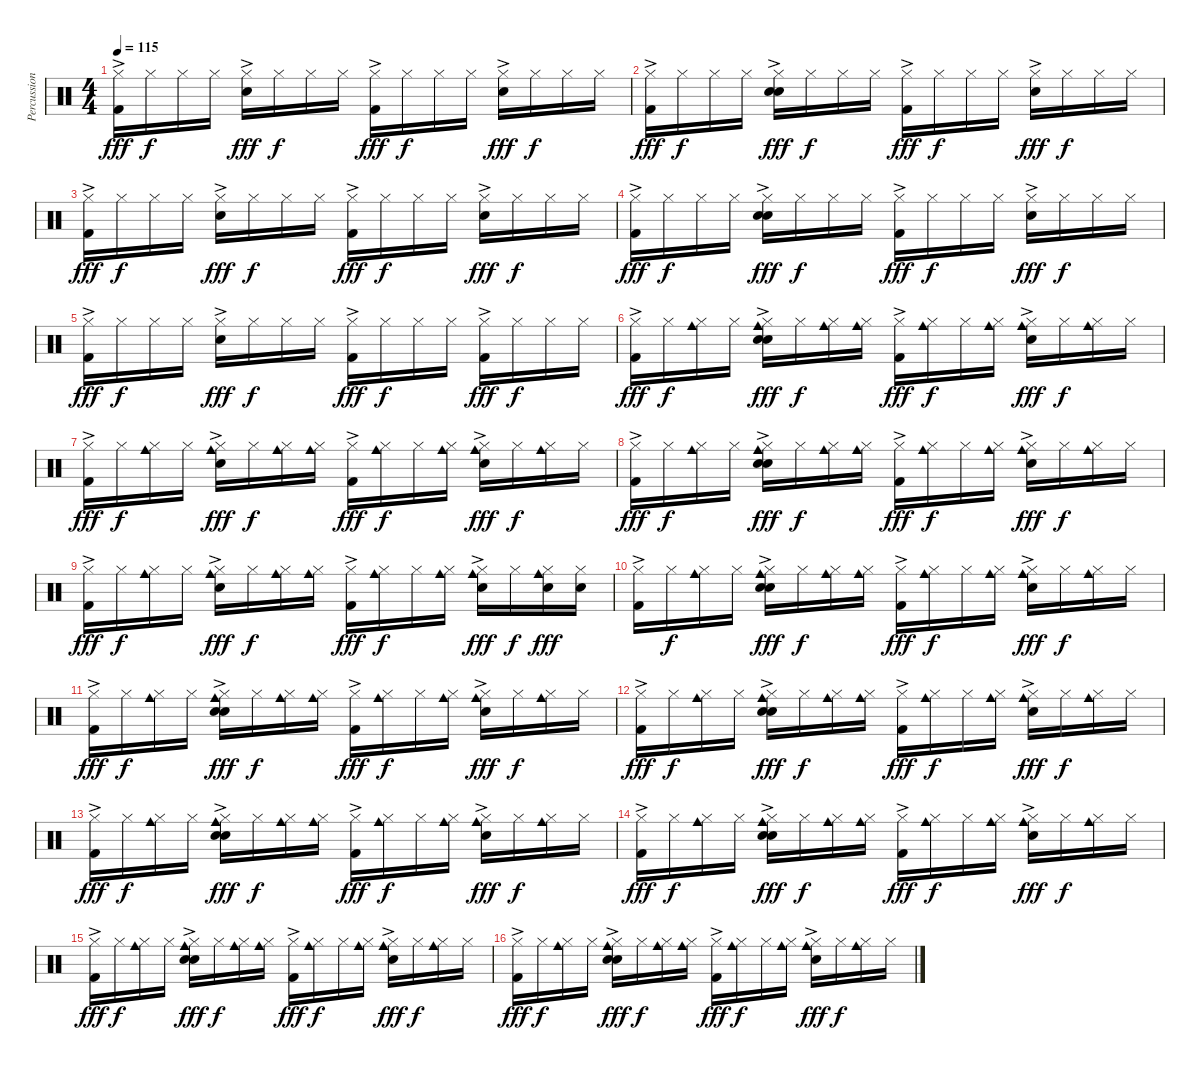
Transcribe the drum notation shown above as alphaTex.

\track ("Percussion" "Percussion") {instrument percussion}
\staff {score}
\articulation defaults
\ts (4 4)
\tempo 115
\clef neutral
\ks c
("Hi-Hat (closed)"{ac} "Kick (hit) 2").16{dy fff} "Hi-Hat (closed)".16{dy f} "Hi-Hat (closed)".16 "Hi-Hat (closed)".16 ("Hi-Hat (closed)"{ac} "Snare (hit) 2").16{dy fff} "Hi-Hat (closed)".16{dy f} "Hi-Hat (closed)".16 "Hi-Hat (closed)".16 ("Hi-Hat (closed)"{ac} "Kick (hit) 2").16{dy fff} "Hi-Hat (closed)".16{dy f} "Hi-Hat (closed)".16 "Hi-Hat (closed)".16 ("Hi-Hat (closed)"{ac} "Snare (hit) 2").16{dy fff} "Hi-Hat (closed)".16{dy f} "Hi-Hat (closed)".16 "Hi-Hat (closed)".16 |
("Hi-Hat (closed)"{ac} "Kick (hit) 2").16{dy fff} "Hi-Hat (closed)".16{dy f} "Hi-Hat (closed)".16 "Hi-Hat (closed)".16 ("Hi-Hat (closed)"{ac} "Snare (hit) 2" "Hand Clap (hit)").16{dy fff} "Hi-Hat (closed)".16{dy f} "Hi-Hat (closed)".16 "Hi-Hat (closed)".16 ("Hi-Hat (closed)"{ac} "Kick (hit) 2").16{dy fff} "Hi-Hat (closed)".16{dy f} "Hi-Hat (closed)".16 "Hi-Hat (closed)".16 ("Hi-Hat (closed)"{ac} "Snare (hit) 2").16{dy fff} "Hi-Hat (closed)".16{dy f} "Hi-Hat (closed)".16 "Hi-Hat (closed)".16 |
("Hi-Hat (closed)"{ac} "Kick (hit) 2").16{dy fff} "Hi-Hat (closed)".16{dy f} "Hi-Hat (closed)".16 "Hi-Hat (closed)".16 ("Hi-Hat (closed)"{ac} "Snare (hit) 2").16{dy fff} "Hi-Hat (closed)".16{dy f} "Hi-Hat (closed)".16 "Hi-Hat (closed)".16 ("Hi-Hat (closed)"{ac} "Kick (hit) 2").16{dy fff} "Hi-Hat (closed)".16{dy f} "Hi-Hat (closed)".16 "Hi-Hat (closed)".16 ("Hi-Hat (closed)"{ac} "Snare (hit) 2").16{dy fff} "Hi-Hat (closed)".16{dy f} "Hi-Hat (closed)".16 "Hi-Hat (closed)".16 |
("Hi-Hat (closed)"{ac} "Kick (hit) 2").16{dy fff} "Hi-Hat (closed)".16{dy f} "Hi-Hat (closed)".16 "Hi-Hat (closed)".16 ("Hi-Hat (closed)"{ac} "Snare (hit) 2" "Hand Clap (hit)").16{dy fff} "Hi-Hat (closed)".16{dy f} "Hi-Hat (closed)".16 "Hi-Hat (closed)".16 ("Hi-Hat (closed)"{ac} "Kick (hit) 2").16{dy fff} "Hi-Hat (closed)".16{dy f} "Hi-Hat (closed)".16 "Hi-Hat (closed)".16 ("Hi-Hat (closed)"{ac} "Snare (hit) 2").16{dy fff} "Hi-Hat (closed)".16{dy f} "Hi-Hat (closed)".16 "Hi-Hat (closed)".16 |
("Hi-Hat (closed)"{ac} "Kick (hit) 2").16{dy fff} "Hi-Hat (closed)".16{dy f} "Hi-Hat (closed)".16 "Hi-Hat (closed)".16 ("Hi-Hat (closed)"{ac} "Snare (hit) 2").16{dy fff} "Hi-Hat (closed)".16{dy f} "Hi-Hat (closed)".16 "Hi-Hat (closed)".16 ("Hi-Hat (closed)"{ac} "Kick (hit) 2").16{dy fff} "Hi-Hat (closed)".16{dy f} "Hi-Hat (closed)".16 "Hi-Hat (closed)".16 ("Hi-Hat (closed)"{ac} "Kick (hit) 2").16{dy fff} "Hi-Hat (closed)".16{dy f} "Hi-Hat (closed)".16 "Hi-Hat (closed)".16 |
("Hi-Hat (closed)"{ac} "Kick (hit) 2").16{dy fff} "Hi-Hat (closed)".16{dy f} ("Hi-Hat (closed)" "Cowbell medium (hit)").16 "Hi-Hat (closed)".16 ("Hi-Hat (closed)"{ac} "Snare (hit) 2" "Cowbell medium (hit)" "Hand Clap (hit)").16{dy fff} "Hi-Hat (closed)".16{dy f} ("Hi-Hat (closed)" "Cowbell medium (hit)").16 ("Hi-Hat (closed)" "Cowbell medium (hit)").16 ("Hi-Hat (closed)"{ac} "Kick (hit) 2").16{dy fff} ("Hi-Hat (closed)" "Cowbell medium (hit)").16{dy f} "Hi-Hat (closed)".16 ("Hi-Hat (closed)" "Cowbell medium (hit)").16 ("Hi-Hat (closed)"{ac} "Snare (hit) 2" "Cowbell medium (hit)").16{dy fff} "Hi-Hat (closed)".16{dy f} ("Hi-Hat (closed)" "Cowbell medium (hit)").16 "Hi-Hat (closed)".16 |
("Hi-Hat (closed)"{ac} "Kick (hit) 2").16{dy fff} "Hi-Hat (closed)".16{dy f} ("Hi-Hat (closed)" "Cowbell medium (hit)").16 "Hi-Hat (closed)".16 ("Hi-Hat (closed)"{ac} "Snare (hit) 2" "Cowbell medium (hit)").16{dy fff} "Hi-Hat (closed)".16{dy f} ("Hi-Hat (closed)" "Cowbell medium (hit)").16 ("Hi-Hat (closed)" "Cowbell medium (hit)").16 ("Hi-Hat (closed)"{ac} "Kick (hit) 2").16{dy fff} ("Hi-Hat (closed)" "Cowbell medium (hit)").16{dy f} "Hi-Hat (closed)".16 ("Hi-Hat (closed)" "Cowbell medium (hit)").16 ("Hi-Hat (closed)"{ac} "Snare (hit) 2" "Cowbell medium (hit)").16{dy fff} "Hi-Hat (closed)".16{dy f} ("Hi-Hat (closed)" "Cowbell medium (hit)").16 "Hi-Hat (closed)".16 |
("Hi-Hat (closed)"{ac} "Kick (hit) 2").16{dy fff} "Hi-Hat (closed)".16{dy f} ("Hi-Hat (closed)" "Cowbell medium (hit)").16 "Hi-Hat (closed)".16 ("Hi-Hat (closed)"{ac} "Snare (hit) 2" "Cowbell medium (hit)" "Hand Clap (hit)").16{dy fff} "Hi-Hat (closed)".16{dy f} ("Hi-Hat (closed)" "Cowbell medium (hit)").16 ("Hi-Hat (closed)" "Cowbell medium (hit)").16 ("Hi-Hat (closed)"{ac} "Kick (hit) 2").16{dy fff} ("Hi-Hat (closed)" "Cowbell medium (hit)").16{dy f} "Hi-Hat (closed)".16 ("Hi-Hat (closed)" "Cowbell medium (hit)").16 ("Hi-Hat (closed)"{ac} "Snare (hit) 2" "Cowbell medium (hit)").16{dy fff} "Hi-Hat (closed)".16{dy f} ("Hi-Hat (closed)" "Cowbell medium (hit)").16 "Hi-Hat (closed)".16 |
("Hi-Hat (closed)"{ac} "Kick (hit) 2").16{dy fff} "Hi-Hat (closed)".16{dy f} ("Hi-Hat (closed)" "Cowbell medium (hit)").16 "Hi-Hat (closed)".16 ("Hi-Hat (closed)"{ac} "Snare (hit) 2" "Cowbell medium (hit)").16{dy fff} "Hi-Hat (closed)".16{dy f} ("Hi-Hat (closed)" "Cowbell medium (hit)").16 ("Hi-Hat (closed)" "Cowbell medium (hit)").16 ("Hi-Hat (closed)"{ac} "Kick (hit) 2").16{dy fff} ("Hi-Hat (closed)" "Cowbell medium (hit)").16{dy f} "Hi-Hat (closed)".16 ("Hi-Hat (closed)" "Cowbell medium (hit)").16 ("Hi-Hat (closed)"{ac} "Snare (hit) 2" "Cowbell medium (hit)").16{dy fff} "Hi-Hat (closed)".16{dy f} ("Hi-Hat (closed)" "Snare (hit) 2" "Cowbell medium (hit)").16{dy fff} ("Hi-Hat (closed)" "Snare (hit) 2").16 |
("Hi-Hat (closed)"{ac} "Kick (hit) 2").16 "Hi-Hat (closed)".16{dy f} ("Hi-Hat (closed)" "Cowbell medium (hit)").16 "Hi-Hat (closed)".16 ("Hi-Hat (closed)"{ac} "Snare (hit) 2" "Cowbell medium (hit)" "Hand Clap (hit)").16{dy fff} "Hi-Hat (closed)".16{dy f} ("Hi-Hat (closed)" "Cowbell medium (hit)").16 ("Hi-Hat (closed)" "Cowbell medium (hit)").16 ("Hi-Hat (closed)"{ac} "Kick (hit) 2").16{dy fff} ("Hi-Hat (closed)" "Cowbell medium (hit)").16{dy f} "Hi-Hat (closed)".16 ("Hi-Hat (closed)" "Cowbell medium (hit)").16 ("Hi-Hat (closed)"{ac} "Snare (hit) 2" "Cowbell medium (hit)").16{dy fff} "Hi-Hat (closed)".16{dy f} ("Hi-Hat (closed)" "Cowbell medium (hit)").16 "Hi-Hat (closed)".16 |
("Hi-Hat (closed)"{ac} "Kick (hit) 2").16{dy fff} "Hi-Hat (closed)".16{dy f} ("Hi-Hat (closed)" "Cowbell medium (hit)").16 "Hi-Hat (closed)".16 ("Hi-Hat (closed)"{ac} "Snare (hit) 2" "Cowbell medium (hit)" "Hand Clap (hit)").16{dy fff} "Hi-Hat (closed)".16{dy f} ("Hi-Hat (closed)" "Cowbell medium (hit)").16 ("Hi-Hat (closed)" "Cowbell medium (hit)").16 ("Hi-Hat (closed)"{ac} "Kick (hit) 2").16{dy fff} ("Hi-Hat (closed)" "Cowbell medium (hit)").16{dy f} "Hi-Hat (closed)".16 ("Hi-Hat (closed)" "Cowbell medium (hit)").16 ("Hi-Hat (closed)"{ac} "Snare (hit) 2" "Cowbell medium (hit)").16{dy fff} "Hi-Hat (closed)".16{dy f} ("Hi-Hat (closed)" "Cowbell medium (hit)").16 "Hi-Hat (closed)".16 |
("Hi-Hat (closed)"{ac} "Kick (hit) 2").16{dy fff volume 13} "Hi-Hat (closed)".16{dy f} ("Hi-Hat (closed)" "Cowbell medium (hit)").16 "Hi-Hat (closed)".16 ("Hi-Hat (closed)"{ac} "Snare (hit) 2" "Cowbell medium (hit)" "Hand Clap (hit)").16{dy fff} "Hi-Hat (closed)".16{dy f} ("Hi-Hat (closed)" "Cowbell medium (hit)").16 ("Hi-Hat (closed)" "Cowbell medium (hit)").16 ("Hi-Hat (closed)"{ac} "Kick (hit) 2").16{dy fff} ("Hi-Hat (closed)" "Cowbell medium (hit)").16{dy f} "Hi-Hat (closed)".16 ("Hi-Hat (closed)" "Cowbell medium (hit)").16 ("Hi-Hat (closed)"{ac} "Snare (hit) 2" "Cowbell medium (hit)").16{dy fff} "Hi-Hat (closed)".16{dy f} ("Hi-Hat (closed)" "Cowbell medium (hit)").16 "Hi-Hat (closed)".16 |
("Hi-Hat (closed)"{ac} "Kick (hit) 2").16{dy fff} "Hi-Hat (closed)".16{dy f} ("Hi-Hat (closed)" "Cowbell medium (hit)").16 "Hi-Hat (closed)".16 ("Hi-Hat (closed)"{ac} "Snare (hit) 2" "Cowbell medium (hit)" "Hand Clap (hit)").16{dy fff} "Hi-Hat (closed)".16{dy f} ("Hi-Hat (closed)" "Cowbell medium (hit)").16 ("Hi-Hat (closed)" "Cowbell medium (hit)").16 ("Hi-Hat (closed)"{ac} "Kick (hit) 2").16{dy fff} ("Hi-Hat (closed)" "Cowbell medium (hit)").16{dy f} "Hi-Hat (closed)".16 ("Hi-Hat (closed)" "Cowbell medium (hit)").16 ("Hi-Hat (closed)"{ac} "Snare (hit) 2" "Cowbell medium (hit)").16{dy fff} "Hi-Hat (closed)".16{dy f} ("Hi-Hat (closed)" "Cowbell medium (hit)").16 "Hi-Hat (closed)".16 |
("Hi-Hat (closed)"{ac} "Kick (hit) 2").16{dy fff} "Hi-Hat (closed)".16{dy f} ("Hi-Hat (closed)" "Cowbell medium (hit)").16 "Hi-Hat (closed)".16 ("Hi-Hat (closed)"{ac} "Snare (hit) 2" "Cowbell medium (hit)" "Hand Clap (hit)").16{dy fff} "Hi-Hat (closed)".16{dy f} ("Hi-Hat (closed)" "Cowbell medium (hit)").16 ("Hi-Hat (closed)" "Cowbell medium (hit)").16 ("Hi-Hat (closed)"{ac} "Kick (hit) 2").16{dy fff} ("Hi-Hat (closed)" "Cowbell medium (hit)").16{dy f} "Hi-Hat (closed)".16 ("Hi-Hat (closed)" "Cowbell medium (hit)").16 ("Hi-Hat (closed)"{ac} "Snare (hit) 2" "Cowbell medium (hit)").16{dy fff} "Hi-Hat (closed)".16{dy f} ("Hi-Hat (closed)" "Cowbell medium (hit)").16 "Hi-Hat (closed)".16 |
("Hi-Hat (closed)"{ac} "Kick (hit) 2").16{dy fff} "Hi-Hat (closed)".16{dy f} ("Hi-Hat (closed)" "Cowbell medium (hit)").16 "Hi-Hat (closed)".16 ("Hi-Hat (closed)"{ac} "Snare (hit) 2" "Cowbell medium (hit)" "Hand Clap (hit)").16{dy fff} "Hi-Hat (closed)".16{dy f} ("Hi-Hat (closed)" "Cowbell medium (hit)").16 ("Hi-Hat (closed)" "Cowbell medium (hit)").16 ("Hi-Hat (closed)"{ac} "Kick (hit) 2").16{dy fff volume 11} ("Hi-Hat (closed)" "Cowbell medium (hit)").16{dy f} "Hi-Hat (closed)".16 ("Hi-Hat (closed)" "Cowbell medium (hit)").16 ("Hi-Hat (closed)"{ac} "Snare (hit) 2" "Cowbell medium (hit)").16{dy fff} "Hi-Hat (closed)".16{dy f} ("Hi-Hat (closed)" "Cowbell medium (hit)").16 "Hi-Hat (closed)".16 |
("Hi-Hat (closed)"{ac} "Kick (hit) 2").16{dy fff} "Hi-Hat (closed)".16{dy f} ("Hi-Hat (closed)" "Cowbell medium (hit)").16 "Hi-Hat (closed)".16 ("Hi-Hat (closed)"{ac} "Snare (hit) 2" "Cowbell medium (hit)" "Hand Clap (hit)").16{dy fff} "Hi-Hat (closed)".16{dy f} ("Hi-Hat (closed)" "Cowbell medium (hit)").16 ("Hi-Hat (closed)" "Cowbell medium (hit)").16 ("Hi-Hat (closed)"{ac} "Kick (hit) 2").16{dy fff} ("Hi-Hat (closed)" "Cowbell medium (hit)").16{dy f} "Hi-Hat (closed)".16 ("Hi-Hat (closed)" "Cowbell medium (hit)").16 ("Hi-Hat (closed)"{ac} "Snare (hit) 2" "Cowbell medium (hit)").16{dy fff volume 7} "Hi-Hat (closed)".16{dy f} ("Hi-Hat (closed)" "Cowbell medium (hit)").16 "Hi-Hat (closed)".16
